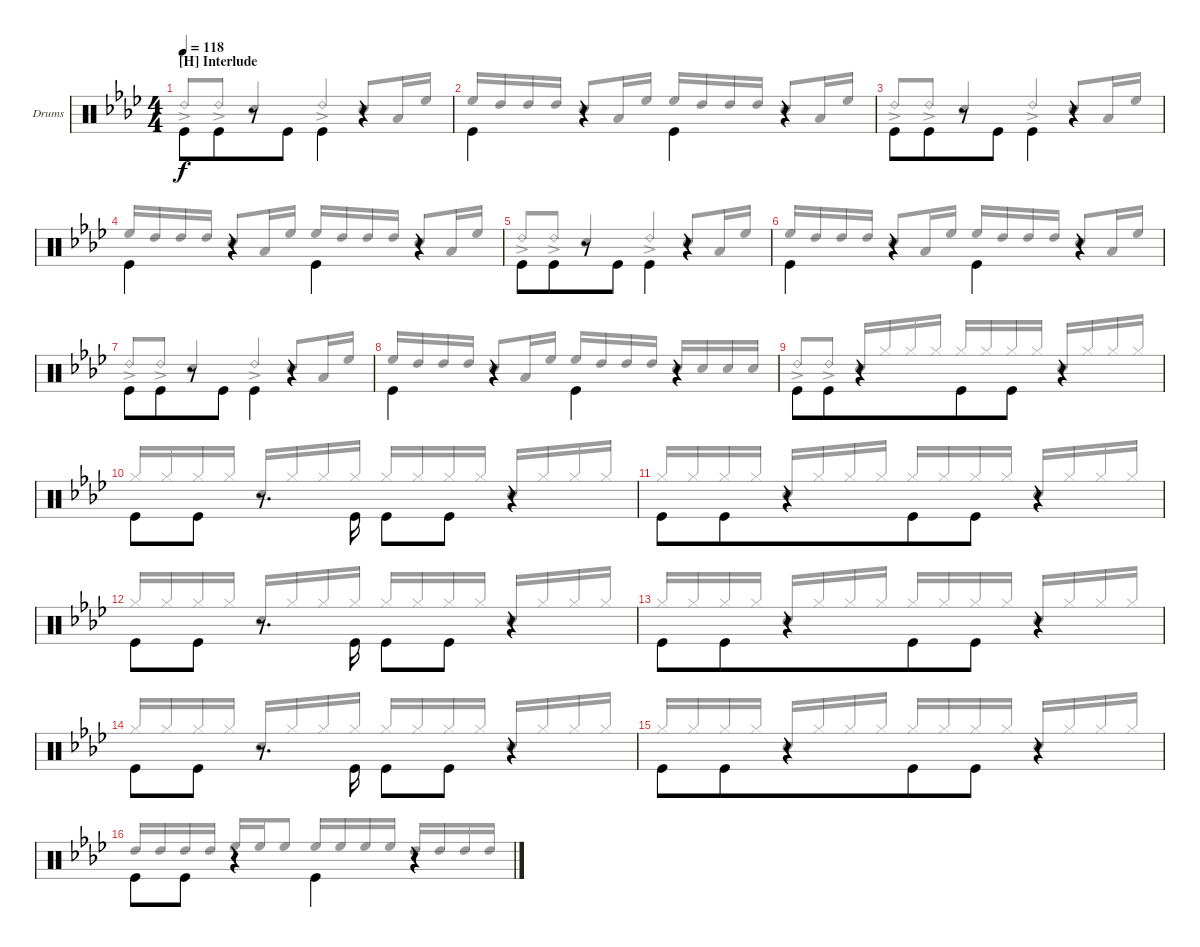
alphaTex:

\bracketExtendMode groupsimilarinstruments
\firstSystemTrackNameOrientation horizontal
\otherSystemsTrackNameOrientation horizontal
\track ("Drums" "Drums") {instrument percussion}
\staff {score}
\articulation defaults
\voice
\ts (4 4)
\section ("H" "Interlude")
\tempo 118
\clef neutral
\scale
0.5
\ks ab "Kick (hit)".8{dy f beam invert beam merge} "Kick (hit)".8{beam merge}
r.8{beam merge} "Kick (hit)".8 "Kick (hit)".4{beam invert} r.4 |
\scale
0.5 "Kick (hit)".4{beam invert} r.4{beam invert} "Kick (hit)".4{beam invert} r.4{beam invert} |
\scale
0.5 "Kick (hit)".8{beam invert beam merge} "Kick (hit)".8{beam merge} r.8{beam merge} "Kick (hit)".8 "Kick (hit)".4{beam invert} r.4 |
\scale
0.5 "Kick (hit)".4{beam invert} r.4{beam invert} "Kick (hit)".4{beam invert} r.4{beam invert} |
\scale
0.5 "Kick (hit)".8{beam invert beam merge} "Kick (hit)".8{beam merge} r.8{beam merge} "Kick (hit)".8 "Kick (hit)".4{beam invert} r.4 |
\scale
0.5 "Kick (hit)".4{beam invert} r.4{beam invert} "Kick (hit)".4{beam invert} r.4{beam invert} |
\scale
0.5 "Kick (hit)".8{beam invert beam merge} "Kick (hit)".8{beam merge} r.8{beam merge} "Kick (hit)".8 "Kick (hit)".4{beam invert} r.4 |
\scale
0.5 "Kick (hit)".4{beam invert} r.4{beam invert} "Kick (hit)".4{beam invert} r.4{beam invert} |
\scale
0.5 "Kick (hit)".8{beam invert beam merge} "Kick (hit)".8{beam merge} r.4{beam merge} "Kick (hit)".8{beam invert beam merge} "Kick (hit)".8{beam merge} r.4{beam merge} |
\scale
0.5 "Kick (hit)".8{beam invert beam merge} "Kick (hit)".8{beam split} r.8{d beam split} "Kick (hit)".16{beam invert} "Kick (hit)".8{beam invert beam merge} "Kick (hit)".8{beam merge} r.4 |
\scale
0.5 "Kick (hit)".8{beam invert beam merge} "Kick (hit)".8{beam merge} r.4{beam merge} "Kick (hit)".8{beam invert beam merge} "Kick (hit)".8{beam merge} r.4{beam merge} |
\scale
0.5 "Kick (hit)".8{beam invert beam merge} "Kick (hit)".8{beam split} r.8{d beam split} "Kick (hit)".16{beam invert} "Kick (hit)".8{beam invert beam merge} "Kick (hit)".8{beam merge} r.4 |
\scale
0.5 "Kick (hit)".8{beam invert beam merge} "Kick (hit)".8{beam merge} r.4{beam merge} "Kick (hit)".8{beam invert beam merge} "Kick (hit)".8{beam merge} r.4{beam merge} |
\scale
0.5 "Kick (hit)".8{beam invert beam merge} "Kick (hit)".8{beam split} r.8{d beam split} "Kick (hit)".16{beam invert} "Kick (hit)".8{beam invert beam merge} "Kick (hit)".8{beam merge} r.4 |
\scale
0.5 "Kick (hit)".8{beam invert beam merge} "Kick (hit)".8{beam merge} r.4{beam merge} "Kick (hit)".8{beam invert beam merge} "Kick (hit)".8{beam merge} r.4{beam merge} |
\scale
0.5 "Kick (hit)".8{beam invert beam merge} "Kick (hit)".8{beam merge} r.4{beam merge} "Kick (hit)".4{beam invert beam merge} r.4{beam merge}
\voice
\clef neutral
\ottava regular
\simile none
\scale
0.5
\ks ab "Ride (bell) 2"{ac}.8{dy f beam invert} "Ride (bell) 2"{ac}.8 "Snare (hit) 2".4{beam invert} "Ride (bell) 2"{ac}.4{beam invert} "Snare (hit) 2".8{beam invert} "Low Tom (hit)".16 "High Floor Tom (hit)".16
|
\scale
0.5 "High Floor Tom (hit)".16{beam invert} "High Tom (hit)".16 "High Tom (hit)".16 "High Tom (hit)".16 "Snare (hit) 2".8{beam invert} "Low Tom (hit)".16 "High Floor Tom (hit)".16 "High Floor Tom (hit)".16{beam invert} "High Tom (hit)".16 "High Tom (hit)".16 "High Tom (hit)".16 "Snare (hit) 2".8{beam invert} "Low Tom (hit)".16 "High Floor Tom (hit)".16 |
\scale
0.5 "Ride (bell) 2"{ac}.8{beam invert} "Ride (bell) 2"{ac}.8 "Snare (hit) 2".4{beam invert} "Ride (bell) 2"{ac}.4{beam invert} "Snare (hit) 2".8{beam invert} "Low Tom (hit)".16 "High Floor Tom (hit)".16 |
\scale
0.5 "High Floor Tom (hit)".16{beam invert} "High Tom (hit)".16 "High Tom (hit)".16 "High Tom (hit)".16 "Snare (hit) 2".8{beam invert} "Low Tom (hit)".16 "High Floor Tom (hit)".16 "High Floor Tom (hit)".16{beam invert} "High Tom (hit)".16 "High Tom (hit)".16 "High Tom (hit)".16 "Snare (hit) 2".8{beam invert} "Low Tom (hit)".16 "High Floor Tom (hit)".16 |
\scale
0.5 "Ride (bell) 2"{ac}.8{beam invert} "Ride (bell) 2"{ac}.8 "Snare (hit) 2".4{beam invert} "Ride (bell) 2"{ac}.4{beam invert} "Snare (hit) 2".8{beam invert} "Low Tom (hit)".16 "High Floor Tom (hit)".16 |
\scale
0.5 "High Floor Tom (hit)".16{beam invert} "High Tom (hit)".16 "High Tom (hit)".16 "High Tom (hit)".16 "Snare (hit) 2".8{beam invert} "Low Tom (hit)".16 "High Floor Tom (hit)".16 "High Floor Tom (hit)".16{beam invert} "High Tom (hit)".16 "High Tom (hit)".16 "High Tom (hit)".16 "Snare (hit) 2".8{beam invert} "Low Tom (hit)".16 "High Floor Tom (hit)".16 |
\scale
0.5 "Ride (bell) 2"{ac}.8{beam invert} "Ride (bell) 2"{ac}.8 "Snare (hit) 2".4{beam invert} "Ride (bell) 2"{ac}.4{beam invert} "Snare (hit) 2".8{beam invert} "Low Tom (hit)".16 "High Floor Tom (hit)".16 |
\scale
0.5 "High Floor Tom (hit)".16{beam invert} "High Tom (hit)".16 "High Tom (hit)".16 "High Tom (hit)".16 "Snare (hit) 2".8{beam invert} "Low Tom (hit)".16 "High Floor Tom (hit)".16 "High Floor Tom (hit)".16{beam invert} "High Tom (hit)".16 "High Tom (hit)".16 "High Tom (hit)".16 "Snare (hit) 2".16{beam invert beam merge} "Snare (hit) 2".16{beam merge} "Snare (hit) 2".16{beam merge} "Snare (hit) 2".16{beam merge} |
\scale
0.5 "Ride (bell) 2"{ac}.8{beam invert} "Ride (bell) 2"{ac}.8 "Snare (hit) 2".16{beam invert beam merge} "Hi-Hat (closed)".16{beam merge} "Hi-Hat (closed)".16{beam merge} "Hi-Hat (closed)".16{beam split} "Hi-Hat (closed)".16{beam invert beam merge} "Hi-Hat (closed)".16{beam merge} "Hi-Hat (closed)".16{beam merge} "Hi-Hat (closed)".16{beam split} "Snare (hit) 2".16{beam invert beam merge} "Hi-Hat (closed)".16{beam merge} "Hi-Hat (closed)".16{beam merge} "Hi-Hat (closed)".16{beam split} |
\scale
0.5 "Hi-Hat (closed)".16{beam invert beam merge} "Hi-Hat (closed)".16{beam merge} "Hi-Hat (closed)".16{beam merge} "Hi-Hat (closed)".16{beam split} "Snare (hit) 2".16{beam invert beam merge} "Hi-Hat (closed)".16{beam merge} "Hi-Hat (closed)".16{beam merge} "Hi-Hat (closed)".16{beam split} "Hi-Hat (closed)".16{beam invert beam merge} "Hi-Hat (closed)".16{beam merge} "Hi-Hat (closed)".16{beam merge} "Hi-Hat (closed)".16{beam split} "Snare (hit) 2".16{beam invert beam merge} "Hi-Hat (closed)".16{beam merge} "Hi-Hat (closed)".16{beam merge} "Hi-Hat (closed)".16{beam split} |
\scale
0.5 "Hi-Hat (closed)".16{beam invert beam merge} "Hi-Hat (closed)".16{beam merge} "Hi-Hat (closed)".16{beam merge} "Hi-Hat (closed)".16{beam split} "Snare (hit) 2".16{beam invert beam merge} "Hi-Hat (closed)".16{beam merge} "Hi-Hat (closed)".16{beam merge} "Hi-Hat (closed)".16{beam split} "Hi-Hat (closed)".16{beam invert beam merge} "Hi-Hat (closed)".16{beam merge} "Hi-Hat (closed)".16{beam merge} "Hi-Hat (closed)".16{beam split} "Snare (hit) 2".16{beam invert beam merge} "Hi-Hat (closed)".16{beam merge} "Hi-Hat (closed)".16{beam merge} "Hi-Hat (closed)".16{beam split} |
\scale
0.5 "Hi-Hat (closed)".16{beam invert beam merge} "Hi-Hat (closed)".16{beam merge} "Hi-Hat (closed)".16{beam merge} "Hi-Hat (closed)".16{beam split} "Snare (hit) 2".16{beam invert beam merge} "Hi-Hat (closed)".16{beam merge} "Hi-Hat (closed)".16{beam merge} "Hi-Hat (closed)".16{beam split} "Hi-Hat (closed)".16{beam invert beam merge} "Hi-Hat (closed)".16{beam merge} "Hi-Hat (closed)".16{beam merge} "Hi-Hat (closed)".16{beam split} "Snare (hit) 2".16{beam invert beam merge} "Hi-Hat (closed)".16{beam merge} "Hi-Hat (closed)".16{beam merge} "Hi-Hat (closed)".16{beam split} |
\scale
0.5 "Hi-Hat (closed)".16{beam invert beam merge} "Hi-Hat (closed)".16{beam merge} "Hi-Hat (closed)".16{beam merge} "Hi-Hat (closed)".16{beam split} "Snare (hit) 2".16{beam invert beam merge} "Hi-Hat (closed)".16{beam merge} "Hi-Hat (closed)".16{beam merge} "Hi-Hat (closed)".16{beam split} "Hi-Hat (closed)".16{beam invert beam merge} "Hi-Hat (closed)".16{beam merge} "Hi-Hat (closed)".16{beam merge} "Hi-Hat (closed)".16{beam split} "Snare (hit) 2".16{beam invert beam merge} "Hi-Hat (closed)".16{beam merge} "Hi-Hat (closed)".16{beam merge} "Hi-Hat (closed)".16{beam split} |
\scale
0.5 "Hi-Hat (closed)".16{beam invert beam merge} "Hi-Hat (closed)".16{beam merge} "Hi-Hat (closed)".16{beam merge} "Hi-Hat (closed)".16{beam split} "Snare (hit) 2".16{beam invert beam merge} "Hi-Hat (closed)".16{beam merge} "Hi-Hat (closed)".16{beam merge} "Hi-Hat (closed)".16{beam split} "Hi-Hat (closed)".16{beam invert beam merge} "Hi-Hat (closed)".16{beam merge} "Hi-Hat (closed)".16{beam merge} "Hi-Hat (closed)".16{beam split} "Snare (hit) 2".16{beam invert beam merge} "Hi-Hat (closed)".16{beam merge} "Hi-Hat (closed)".16{beam merge} "Hi-Hat (closed)".16{beam split} |
\scale
0.5 "Hi-Hat (closed)".16{beam invert beam merge} "Hi-Hat (closed)".16{beam merge} "Hi-Hat (closed)".16{beam merge} "Hi-Hat (closed)".16{beam split} "Snare (hit) 2".16{beam invert beam merge} "Hi-Hat (closed)".16{beam merge} "Hi-Hat (closed)".16{beam merge} "Hi-Hat (closed)".16{beam split} "Hi-Hat (closed)".16{beam invert beam merge} "Hi-Hat (closed)".16{beam merge} "Hi-Hat (closed)".16{beam merge} "Hi-Hat (closed)".16{beam split} "Snare (hit) 2".16{beam invert beam merge} "Hi-Hat (closed)".16{beam merge} "Hi-Hat (closed)".16{beam merge} "Hi-Hat (closed)".16{beam split} |
\scale
0.5 "High Tom (hit)".16{beam invert} "High Tom (hit)".16 "High Tom (hit)".16 "High Tom (hit)".16 "High Floor Tom (hit)".16{beam invert} "High Floor Tom (hit)".16 "High Floor Tom (hit)".8 "High Floor Tom (hit)".16{beam invert} "High Floor Tom (hit)".16 "High Floor Tom (hit)".16 "High Floor Tom (hit)".16 "High Tom (hit)".16{beam invert} "High Tom (hit)".16 "High Tom (hit)".16 "High Tom (hit)".16
